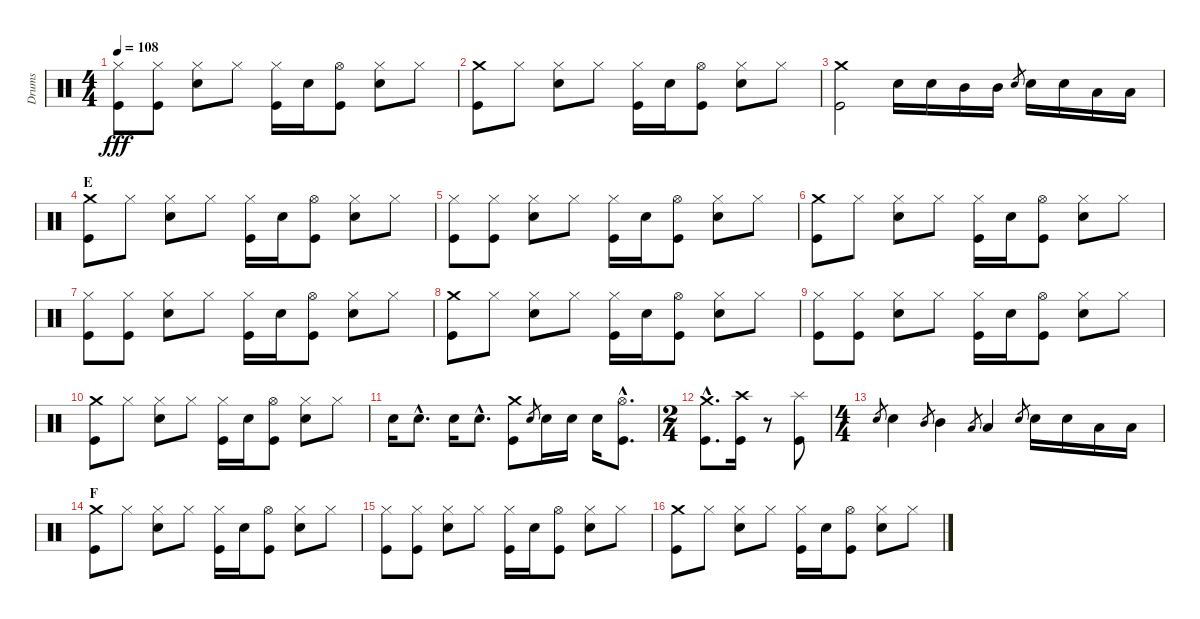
\track ("Drums" "Drums") {instrument percussion}
\staff {score}
\articulation defaults
\ts (4 4)
\tempo 108
\clef neutral
\ks c
("Hi-Hat (closed)" "Kick (hit)").8{dy fff} ("Hi-Hat (closed)" "Kick (hit)").8 ("Hi-Hat (closed)" "Snare (hit) 2").8 "Hi-Hat (closed)".8 ("Hi-Hat (closed)" "Kick (hit)").16 "Snare (hit) 2".16 ("Hi-Hat (open)" "Kick (hit)").8 ("Hi-Hat (closed)" "Snare (hit) 2").8 "Hi-Hat (closed)".8 |
("Crash medium (hit)" "Kick (hit)").8 "Hi-Hat (closed)".8 ("Hi-Hat (closed)" "Snare (hit) 2").8 "Hi-Hat (closed)".8 ("Hi-Hat (closed)" "Kick (hit)").16 "Snare (hit) 2".16 ("Hi-Hat (open)" "Kick (hit)").8 ("Hi-Hat (closed)" "Snare (hit) 2").8 "Hi-Hat (closed)".8 |
("Crash medium (hit)" "Kick (hit)").2 "Snare (hit) 2".16 "Snare (hit) 2".16 "Mid Tom (hit)".16 "Mid Tom (hit)".16 "Snare (hit) 2".8{gr} "Snare (hit) 2".16 "Snare (hit) 2".16 "Low Tom (hit)".16 "Low Tom (hit)".16 |
\section ("" "E")
("Crash medium (hit)" "Kick (hit)").8 "Hi-Hat (closed)".8 ("Hi-Hat (closed)" "Snare (hit) 2").8 "Hi-Hat (closed)".8 ("Hi-Hat (closed)" "Kick (hit)").16 "Snare (hit) 2".16 ("Hi-Hat (open)" "Kick (hit)").8 ("Hi-Hat (closed)" "Snare (hit) 2").8 "Hi-Hat (closed)".8 |
("Hi-Hat (closed)" "Kick (hit)").8 ("Hi-Hat (closed)" "Kick (hit)").8 ("Hi-Hat (closed)" "Snare (hit) 2").8 "Hi-Hat (closed)".8 ("Hi-Hat (closed)" "Kick (hit)").16 "Snare (hit) 2".16 ("Hi-Hat (open)" "Kick (hit)").8 ("Hi-Hat (closed)" "Snare (hit) 2").8 "Hi-Hat (closed)".8 |
("Crash medium (hit)" "Kick (hit)").8 "Hi-Hat (closed)".8 ("Hi-Hat (closed)" "Snare (hit) 2").8 "Hi-Hat (closed)".8 ("Hi-Hat (closed)" "Kick (hit)").16 "Snare (hit) 2".16 ("Hi-Hat (open)" "Kick (hit)").8 ("Hi-Hat (closed)" "Snare (hit) 2").8 "Hi-Hat (closed)".8 |
("Hi-Hat (closed)" "Kick (hit)").8 ("Hi-Hat (closed)" "Kick (hit)").8 ("Hi-Hat (closed)" "Snare (hit) 2").8 "Hi-Hat (closed)".8 ("Hi-Hat (closed)" "Kick (hit)").16 "Snare (hit) 2".16 ("Hi-Hat (open)" "Kick (hit)").8 ("Hi-Hat (closed)" "Snare (hit) 2").8 "Hi-Hat (closed)".8 |
("Crash medium (hit)" "Kick (hit)").8 "Hi-Hat (closed)".8 ("Hi-Hat (closed)" "Snare (hit) 2").8 "Hi-Hat (closed)".8 ("Hi-Hat (closed)" "Kick (hit)").16 "Snare (hit) 2".16 ("Hi-Hat (open)" "Kick (hit)").8 ("Hi-Hat (closed)" "Snare (hit) 2").8 "Hi-Hat (closed)".8 |
("Hi-Hat (closed)" "Kick (hit)").8 ("Hi-Hat (closed)" "Kick (hit)").8 ("Hi-Hat (closed)" "Snare (hit) 2").8 "Hi-Hat (closed)".8 ("Hi-Hat (closed)" "Kick (hit)").16 "Snare (hit) 2".16 ("Hi-Hat (open)" "Kick (hit)").8 ("Hi-Hat (closed)" "Snare (hit) 2").8 "Hi-Hat (closed)".8 |
("Crash medium (hit)" "Kick (hit)").8 "Hi-Hat (closed)".8 ("Hi-Hat (closed)" "Snare (hit) 2").8 "Hi-Hat (closed)".8 ("Hi-Hat (closed)" "Kick (hit)").16 "Snare (hit) 2".16 ("Hi-Hat (open)" "Kick (hit)").8 ("Hi-Hat (closed)" "Snare (hit) 2").8 "Hi-Hat (closed)".8 |
"Snare (hit) 2".16 "Snare (hit) 2"{hac}.8{d} "Snare (hit) 2".16 "Snare (hit) 2"{hac}.8{d} ("Crash medium (hit)" "Kick (hit)").8 "Snare (hit) 2".8{gr} "Snare (hit) 2".16 "Snare (hit) 2".16 "Snare (hit) 2".16 ("Hi-Hat (open)"{hac} "Kick (hit)"{hac}).8{d} |
\ts (2 4)
("Crash medium (hit)"{hac} "Kick (hit)"{hac}).8{d} ("Crash high (hit)" "Kick (hit)").16 r.8 ("Splash (hit)" "Kick (hit)").8 |
\ts (4 4)
"Snare (hit) 2".8{gr} "Snare (hit) 2".4 "Mid Tom (hit)".8{gr} "Mid Tom (hit)".4 "Low Tom (hit)".8{gr} "Low Tom (hit)".4 "Snare (hit) 2".8{gr} "Snare (hit) 2".16 "Snare (hit) 2".16 "Low Tom (hit)".16 "Low Tom (hit)".16 |
\section ("" "F")
("Crash medium (hit)" "Kick (hit)").8 "Hi-Hat (closed)".8 ("Hi-Hat (closed)" "Snare (hit) 2").8 "Hi-Hat (closed)".8 ("Hi-Hat (closed)" "Kick (hit)").16 "Snare (hit) 2".16 ("Hi-Hat (open)" "Kick (hit)").8 ("Hi-Hat (closed)" "Snare (hit) 2").8 "Hi-Hat (closed)".8 |
("Hi-Hat (closed)" "Kick (hit)").8 ("Hi-Hat (closed)" "Kick (hit)").8 ("Hi-Hat (closed)" "Snare (hit) 2").8 "Hi-Hat (closed)".8 ("Hi-Hat (closed)" "Kick (hit)").16 "Snare (hit) 2".16 ("Hi-Hat (open)" "Kick (hit)").8 ("Hi-Hat (closed)" "Snare (hit) 2").8 "Hi-Hat (closed)".8 |
("Crash medium (hit)" "Kick (hit)").8 "Hi-Hat (closed)".8 ("Hi-Hat (closed)" "Snare (hit) 2").8 "Hi-Hat (closed)".8 ("Hi-Hat (closed)" "Kick (hit)").16 "Snare (hit) 2".16 ("Hi-Hat (open)" "Kick (hit)").8 ("Hi-Hat (closed)" "Snare (hit) 2").8 "Hi-Hat (closed)".8
